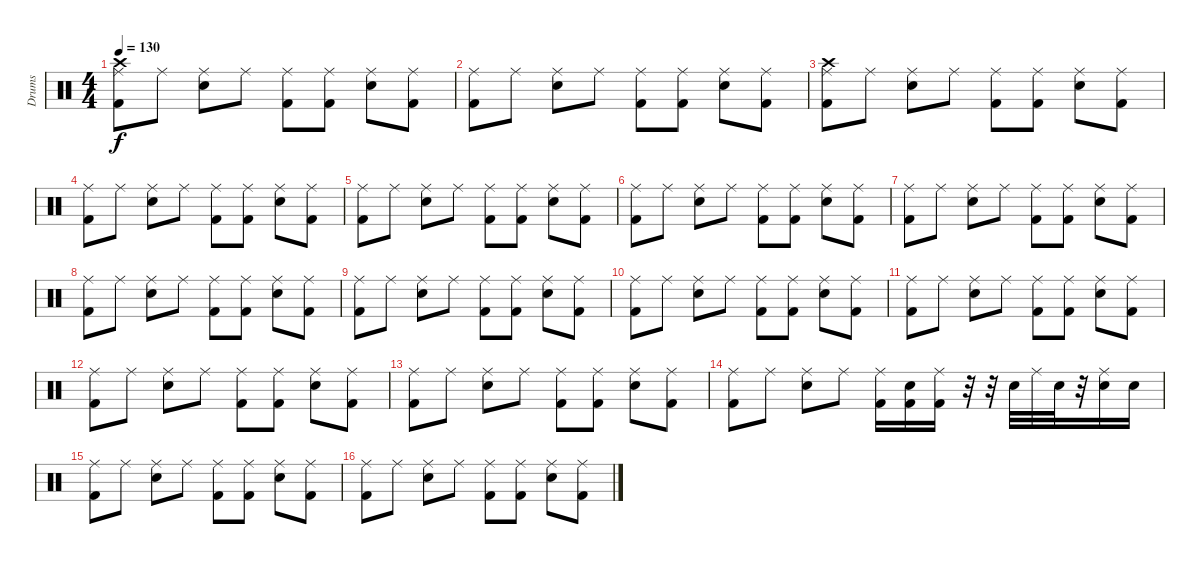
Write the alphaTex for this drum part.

\track ("Drums" "Drums") {instrument percussion}
\staff {score}
\articulation defaults
\ts (4 4)
\tempo 130
\clef neutral
\ks c
("Ride (middle)" "Crash high (hit)" "Kick (hit) 2").8{dy f} "Ride (middle)".8 ("Ride (middle)" "Electric Snare (hit)").8 "Ride (middle)".8 ("Ride (middle)" "Kick (hit) 2").8 ("Ride (middle)" "Kick (hit) 2").8 ("Ride (middle)" "Electric Snare (hit)").8 ("Ride (middle)" "Kick (hit) 2").8 |
("Ride (middle)" "Kick (hit) 2").8 "Ride (middle)".8 ("Ride (middle)" "Electric Snare (hit)").8 "Ride (middle)".8 ("Ride (middle)" "Kick (hit) 2").8 ("Ride (middle)" "Kick (hit) 2").8 ("Ride (middle)" "Electric Snare (hit)").8 ("Ride (middle)" "Kick (hit) 2").8 |
("Ride (middle)" "Crash high (hit)" "Kick (hit) 2").8 "Ride (middle)".8 ("Ride (middle)" "Electric Snare (hit)").8 "Ride (middle)".8 ("Ride (middle)" "Kick (hit) 2").8 ("Ride (middle)" "Kick (hit) 2").8 ("Ride (middle)" "Electric Snare (hit)").8 ("Ride (middle)" "Kick (hit) 2").8 |
("Ride (middle)" "Kick (hit) 2").8 "Ride (middle)".8 ("Ride (middle)" "Electric Snare (hit)").8 "Ride (middle)".8 ("Ride (middle)" "Kick (hit) 2").8 ("Ride (middle)" "Kick (hit) 2").8 ("Ride (middle)" "Electric Snare (hit)").8 ("Ride (middle)" "Kick (hit) 2").8 |
("Ride (middle)" "Kick (hit) 2").8 "Ride (middle)".8 ("Ride (middle)" "Electric Snare (hit)").8 "Ride (middle)".8 ("Ride (middle)" "Kick (hit) 2").8 ("Ride (middle)" "Kick (hit) 2").8 ("Ride (middle)" "Electric Snare (hit)").8 ("Ride (middle)" "Kick (hit) 2").8 |
("Ride (middle)" "Kick (hit) 2").8 "Ride (middle)".8 ("Ride (middle)" "Electric Snare (hit)").8 "Ride (middle)".8 ("Ride (middle)" "Kick (hit) 2").8 ("Ride (middle)" "Kick (hit) 2").8 ("Ride (middle)" "Electric Snare (hit)").8 ("Ride (middle)" "Kick (hit) 2").8 |
("Ride (middle)" "Kick (hit) 2").8 "Ride (middle)".8 ("Ride (middle)" "Electric Snare (hit)").8 "Ride (middle)".8 ("Ride (middle)" "Kick (hit) 2").8 ("Ride (middle)" "Kick (hit) 2").8 ("Ride (middle)" "Electric Snare (hit)").8 ("Ride (middle)" "Kick (hit) 2").8 |
("Ride (middle)" "Kick (hit) 2").8 "Ride (middle)".8 ("Ride (middle)" "Electric Snare (hit)").8 "Ride (middle)".8 ("Ride (middle)" "Kick (hit) 2").8 ("Ride (middle)" "Kick (hit) 2").8 ("Ride (middle)" "Electric Snare (hit)").8 ("Ride (middle)" "Kick (hit) 2").8 |
("Ride (middle)" "Kick (hit) 2").8 "Ride (middle)".8 ("Ride (middle)" "Electric Snare (hit)").8 "Ride (middle)".8 ("Ride (middle)" "Kick (hit) 2").8 ("Ride (middle)" "Kick (hit) 2").8 ("Ride (middle)" "Electric Snare (hit)").8 ("Ride (middle)" "Kick (hit) 2").8 |
("Ride (middle)" "Kick (hit) 2").8 "Ride (middle)".8 ("Ride (middle)" "Electric Snare (hit)").8 "Ride (middle)".8 ("Ride (middle)" "Kick (hit) 2").8 ("Ride (middle)" "Kick (hit) 2").8 ("Ride (middle)" "Electric Snare (hit)").8 ("Ride (middle)" "Kick (hit) 2").8 |
("Ride (middle)" "Kick (hit) 2").8 "Ride (middle)".8 ("Ride (middle)" "Electric Snare (hit)").8 "Ride (middle)".8 ("Ride (middle)" "Kick (hit) 2").8 ("Ride (middle)" "Kick (hit) 2").8 ("Ride (middle)" "Electric Snare (hit)").8 ("Ride (middle)" "Kick (hit) 2").8 |
("Ride (middle)" "Kick (hit) 2").8 "Ride (middle)".8 ("Ride (middle)" "Electric Snare (hit)").8 "Ride (middle)".8 ("Ride (middle)" "Kick (hit) 2").8 ("Ride (middle)" "Kick (hit) 2").8 ("Ride (middle)" "Electric Snare (hit)").8 ("Ride (middle)" "Kick (hit) 2").8 |
("Ride (middle)" "Kick (hit) 2").8 "Ride (middle)".8 ("Ride (middle)" "Electric Snare (hit)").8 "Ride (middle)".8 ("Ride (middle)" "Kick (hit) 2").8 ("Ride (middle)" "Kick (hit) 2").8 ("Ride (middle)" "Electric Snare (hit)").8 ("Ride (middle)" "Kick (hit) 2").8 |
("Ride (middle)" "Kick (hit) 2").8 "Ride (middle)".8 ("Ride (middle)" "Electric Snare (hit)").8 "Ride (middle)".8 ("Ride (middle)" "Kick (hit) 2").16 ("Electric Snare (hit)" "Kick (hit) 2").16 ("Ride (middle)" "Kick (hit) 2").16 r.32 r.32 "Electric Snare (hit)".32 "Ride (middle)".32 "Electric Snare (hit)".32 r.32 ("Ride (middle)" "Electric Snare (hit)").16 "Electric Snare (hit)".16 |
("Ride (middle)" "Kick (hit) 2").8 "Ride (middle)".8 ("Ride (middle)" "Electric Snare (hit)").8 "Ride (middle)".8 ("Ride (middle)" "Kick (hit) 2").8 ("Ride (middle)" "Kick (hit) 2").8 ("Ride (middle)" "Electric Snare (hit)").8 ("Ride (middle)" "Kick (hit) 2").8 |
("Ride (middle)" "Kick (hit) 2").8 "Ride (middle)".8 ("Ride (middle)" "Electric Snare (hit)").8 "Ride (middle)".8 ("Ride (middle)" "Kick (hit) 2").8 ("Ride (middle)" "Kick (hit) 2").8 ("Ride (middle)" "Electric Snare (hit)").8 ("Ride (middle)" "Kick (hit) 2").8
